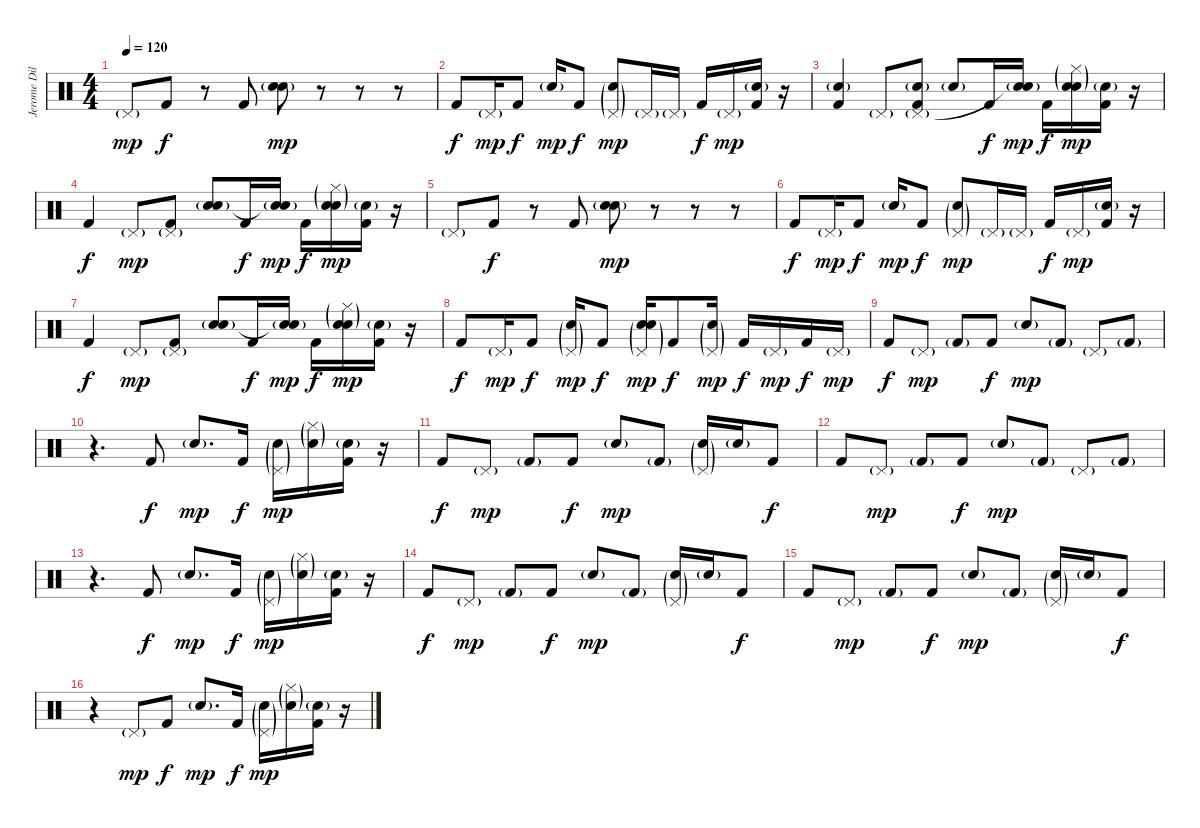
\track ("Jerome Dillon" "Jerome Dil") {instrument percussion}
\staff {score}
\articulation defaults
\ts (4 4)
\tempo 120
\clef neutral
\ks c "Pedal Hi-Hat (hit)"{g}.8{dy mp} "Kick (hit) 2".8{dy f}
r.8 "Kick (hit) 2".8 ("Electric Snare (hit)"{g} "Electric Snare (hit)"{g}).8{dy mp} r.8 r.8 r.8 |
"Kick (hit) 2".8{dy f} "Pedal Hi-Hat (hit)"{g}.16{dy mp} "Kick (hit) 2".8{dy f} "Electric Snare (hit)"{g}.16{dy mp} "Kick (hit) 2".8{dy f} ("Pedal Hi-Hat (hit)"{g} "Electric Snare (hit)"{g}).8{dy mp} "Pedal Hi-Hat (hit)"{g}.16 "Pedal Hi-Hat (hit)"{g}.16 "Kick (hit) 2".16{dy f} "Pedal Hi-Hat (hit)"{g}.16{dy mp} ("Electric Snare (hit)"{g} "Kick (hit) 2").16 r.16 |
("Snare (hit) 2"{g} "Kick (hit) 2").4 "Pedal Hi-Hat (hit)"{g}.8 ("Snare (hit) 2"{g} "Pedal Hi-Hat (hit)"{g} "Kick (hit) 2").8 "Electric Snare (hit)"{g}.8 "Kick (hit) 2".16{dy f} ("Snare (hit) 2"{g} "Snare (hit)"{t}).16{dy mp} "Kick (hit) 2".16{dy f} ("Hi-Hat (closed)"{g} "Electric Snare (hit)"{g} "Snare (hit) 2"{g}).16{dy mp} ("Electric Snare (hit)"{g} "Kick (hit) 2").16 r.16 |
"Kick (hit) 2".4{dy f} "Pedal Hi-Hat (hit)"{g}.8{dy mp} ("Pedal Hi-Hat (hit)"{g} "Kick (hit) 2").8 ("Snare (hit) 2"{g} "Electric Snare (hit)"{g}).8 "Kick (hit) 2".16{dy f} ("Snare (hit) 2"{g} "Snare (hit)"{t}).16{dy mp} "Kick (hit) 2".16{dy f} ("Hi-Hat (closed)"{g} "Electric Snare (hit)"{g} "Snare (hit) 2"{g}).16{dy mp} ("Electric Snare (hit)"{g} "Kick (hit) 2").16 r.16 |
"Pedal Hi-Hat (hit)"{g}.8 "Kick (hit) 2".8{dy f} r.8 "Kick (hit) 2".8 ("Electric Snare (hit)"{g} "Electric Snare (hit)"{g}).8{dy mp} r.8 r.8 r.8 |
"Kick (hit) 2".8{dy f} "Pedal Hi-Hat (hit)"{g}.16{dy mp} "Kick (hit) 2".8{dy f} "Electric Snare (hit)"{g}.16{dy mp} "Kick (hit) 2".8{dy f} ("Pedal Hi-Hat (hit)"{g} "Electric Snare (hit)"{g}).8{dy mp} "Pedal Hi-Hat (hit)"{g}.16 "Pedal Hi-Hat (hit)"{g}.16 "Kick (hit) 2".16{dy f} "Pedal Hi-Hat (hit)"{g}.16{dy mp} ("Electric Snare (hit)"{g} "Kick (hit) 2").16 r.16 |
"Kick (hit) 2".4{dy f} "Pedal Hi-Hat (hit)"{g}.8{dy mp} ("Pedal Hi-Hat (hit)"{g} "Kick (hit) 2").8 ("Snare (hit) 2"{g} "Electric Snare (hit)"{g}).8 "Kick (hit) 2".16{dy f} ("Snare (hit) 2"{g} "Snare (hit)"{t}).16{dy mp} "Kick (hit) 2".16{dy f} ("Hi-Hat (closed)"{g} "Electric Snare (hit)"{g} "Snare (hit) 2"{g}).16{dy mp} ("Electric Snare (hit)"{g} "Kick (hit) 2").16 r.16 |
"Kick (hit) 2".8{dy f} "Pedal Hi-Hat (hit)"{g}.16{dy mp} "Kick (hit) 2".8{dy f} ("Electric Snare (hit)"{g} "Pedal Hi-Hat (hit)"{g}).16{dy mp} "Kick (hit) 2".8{dy f} ("Electric Snare (hit)"{g} "Snare (hit) 2"{g} "Pedal Hi-Hat (hit)"{g}).16{dy mp} "Kick (hit) 2".8{dy f} ("Snare (hit) 2"{g} "Pedal Hi-Hat (hit)"{g}).16{dy mp} "Kick (hit) 2".16{dy f} "Pedal Hi-Hat (hit)"{g}.16{dy mp} "Kick (hit) 2".16{dy f} "Pedal Hi-Hat (hit)"{g}.16{dy mp} |
"Kick (hit) 2".8{dy f} "Pedal Hi-Hat (hit)"{g}.8{dy mp} "Kick (hit) 2"{g}.8 "Kick (hit) 2".8{dy f} "Electric Snare (hit)"{g}.8{dy mp} "Kick (hit) 2"{g}.8 "Pedal Hi-Hat (hit)"{g}.8 "Kick (hit) 2"{g}.8 |
r.4{d} "Kick (hit) 2".8{dy f} "Electric Snare (hit)"{g}.8{d dy mp} "Kick (hit) 2".16{dy f} ("Pedal Hi-Hat (hit)"{g} "Electric Snare (hit)"{g}).16{dy mp} ("Hi-Hat (closed)"{g} "Electric Snare (hit)"{g}).16 ("Electric Snare (hit)"{g} "Kick (hit) 2").16 r.16 |
"Kick (hit) 2".8{dy f} "Pedal Hi-Hat (hit)"{g}.8{dy mp} "Kick (hit) 2"{g}.8 "Kick (hit) 2".8{dy f} "Electric Snare (hit)"{g}.8{dy mp} "Kick (hit) 2"{g}.8 ("Pedal Hi-Hat (hit)"{g} "Electric Snare (hit)"{g}).16 "Electric Snare (hit)"{g}.16 "Kick (hit) 2".8{dy f} |
"Kick (hit) 2".8 "Pedal Hi-Hat (hit)"{g}.8{dy mp} "Kick (hit) 2"{g}.8 "Kick (hit) 2".8{dy f} "Electric Snare (hit)"{g}.8{dy mp} "Kick (hit) 2"{g}.8 "Pedal Hi-Hat (hit)"{g}.8 "Kick (hit) 2"{g}.8 |
r.4{d} "Kick (hit) 2".8{dy f} "Electric Snare (hit)"{g}.8{d dy mp} "Kick (hit) 2".16{dy f} ("Pedal Hi-Hat (hit)"{g} "Electric Snare (hit)"{g}).16{dy mp} ("Hi-Hat (closed)"{g} "Electric Snare (hit)"{g}).16 ("Electric Snare (hit)"{g} "Kick (hit) 2").16 r.16 |
"Kick (hit) 2".8{dy f} "Pedal Hi-Hat (hit)"{g}.8{dy mp} "Kick (hit) 2"{g}.8 "Kick (hit) 2".8{dy f} "Electric Snare (hit)"{g}.8{dy mp} "Kick (hit) 2"{g}.8 ("Pedal Hi-Hat (hit)"{g} "Electric Snare (hit)"{g}).16 "Electric Snare (hit)"{g}.16 "Kick (hit) 2".8{dy f} |
"Kick (hit) 2".8 "Pedal Hi-Hat (hit)"{g}.8{dy mp} "Kick (hit) 2"{g}.8 "Kick (hit) 2".8{dy f} "Electric Snare (hit)"{g}.8{dy mp} "Kick (hit) 2"{g}.8 ("Pedal Hi-Hat (hit)"{g} "Electric Snare (hit)"{g}).16 "Electric Snare (hit)"{g}.16 "Kick (hit) 2".8{dy f} |
r.4 "Pedal Hi-Hat (hit)"{g}.8{dy mp} "Kick (hit) 2".8{dy f} "Electric Snare (hit)"{g}.8{d dy mp} "Kick (hit) 2".16{dy f} ("Pedal Hi-Hat (hit)"{g} "Electric Snare (hit)"{g}).16{dy mp} ("Hi-Hat (closed)"{g} "Electric Snare (hit)"{g}).16 ("Electric Snare (hit)"{g} "Kick (hit) 2").16 r.16
